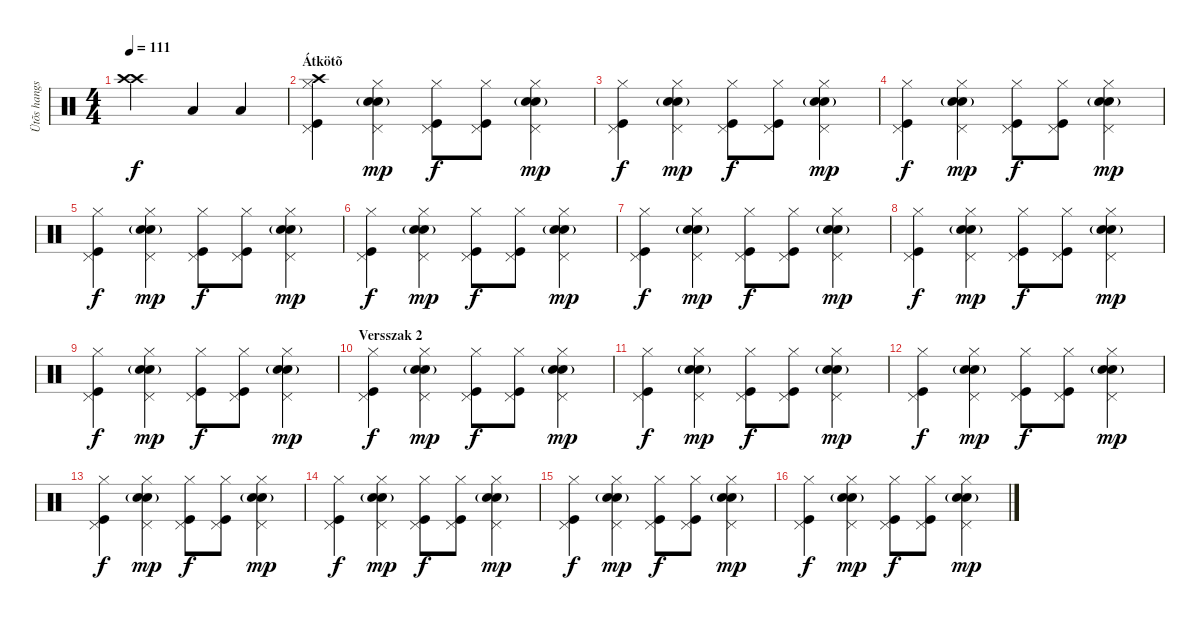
\track ("Ütõs hangszer" "Ütõs hangs") {instrument percussion}
\staff {score}
\articulation defaults
\ts (4 4)
\tempo 111
\clef neutral
\ks c
("Crash high (hit)" "Crash high (hit)").2{dy f} "Low Tom (hit)".4 "Low Tom (hit)".4 |
\section ("" "Átkötõ")
("Hi-Hat (closed)" "Pedal Hi-Hat (hit)" "Crash high (hit)" "Kick (hit)").4 ("Hi-Hat (closed)" "Electric Snare (hit)"{g} "Snare (hit) 2" "Pedal Hi-Hat (hit)").4{dy mp} ("Hi-Hat (closed)" "Pedal Hi-Hat (hit)" "Kick (hit)").8{dy f} ("Hi-Hat (closed)" "Pedal Hi-Hat (hit)" "Kick (hit)").8 ("Hi-Hat (closed)" "Electric Snare (hit)"{g} "Snare (hit) 2" "Pedal Hi-Hat (hit)").4{dy mp} |
("Hi-Hat (closed)" "Pedal Hi-Hat (hit)" "Kick (hit)").4{dy f} ("Hi-Hat (closed)" "Electric Snare (hit)"{g} "Snare (hit) 2" "Pedal Hi-Hat (hit)").4{dy mp} ("Hi-Hat (closed)" "Pedal Hi-Hat (hit)" "Kick (hit)").8{dy f} ("Hi-Hat (closed)" "Pedal Hi-Hat (hit)" "Kick (hit)").8 ("Hi-Hat (closed)" "Electric Snare (hit)"{g} "Snare (hit) 2" "Pedal Hi-Hat (hit)").4{dy mp} |
("Hi-Hat (closed)" "Pedal Hi-Hat (hit)" "Kick (hit)").4{dy f} ("Hi-Hat (closed)" "Electric Snare (hit)"{g} "Snare (hit) 2" "Pedal Hi-Hat (hit)").4{dy mp} ("Hi-Hat (closed)" "Pedal Hi-Hat (hit)" "Kick (hit)").8{dy f} ("Hi-Hat (closed)" "Pedal Hi-Hat (hit)" "Kick (hit)").8 ("Hi-Hat (closed)" "Electric Snare (hit)"{g} "Snare (hit) 2" "Pedal Hi-Hat (hit)").4{dy mp} |
("Hi-Hat (closed)" "Pedal Hi-Hat (hit)" "Kick (hit)").4{dy f} ("Hi-Hat (closed)" "Electric Snare (hit)"{g} "Snare (hit) 2" "Pedal Hi-Hat (hit)").4{dy mp} ("Hi-Hat (closed)" "Pedal Hi-Hat (hit)" "Kick (hit)").8{dy f} ("Hi-Hat (closed)" "Pedal Hi-Hat (hit)" "Kick (hit)").8 ("Hi-Hat (closed)" "Electric Snare (hit)"{g} "Snare (hit) 2" "Pedal Hi-Hat (hit)").4{dy mp} |
("Hi-Hat (closed)" "Pedal Hi-Hat (hit)" "Kick (hit)").4{dy f} ("Hi-Hat (closed)" "Electric Snare (hit)"{g} "Snare (hit) 2" "Pedal Hi-Hat (hit)").4{dy mp} ("Hi-Hat (closed)" "Pedal Hi-Hat (hit)" "Kick (hit)").8{dy f} ("Hi-Hat (closed)" "Pedal Hi-Hat (hit)" "Kick (hit)").8 ("Hi-Hat (closed)" "Electric Snare (hit)"{g} "Snare (hit) 2" "Pedal Hi-Hat (hit)").4{dy mp} |
("Hi-Hat (closed)" "Pedal Hi-Hat (hit)" "Kick (hit)").4{dy f} ("Hi-Hat (closed)" "Electric Snare (hit)"{g} "Snare (hit) 2" "Pedal Hi-Hat (hit)").4{dy mp} ("Hi-Hat (closed)" "Pedal Hi-Hat (hit)" "Kick (hit)").8{dy f} ("Hi-Hat (closed)" "Pedal Hi-Hat (hit)" "Kick (hit)").8 ("Hi-Hat (closed)" "Electric Snare (hit)"{g} "Snare (hit) 2" "Pedal Hi-Hat (hit)").4{dy mp} |
("Hi-Hat (closed)" "Pedal Hi-Hat (hit)" "Kick (hit)").4{dy f} ("Hi-Hat (closed)" "Electric Snare (hit)"{g} "Snare (hit) 2" "Pedal Hi-Hat (hit)").4{dy mp} ("Hi-Hat (closed)" "Pedal Hi-Hat (hit)" "Kick (hit)").8{dy f} ("Hi-Hat (closed)" "Pedal Hi-Hat (hit)" "Kick (hit)").8 ("Hi-Hat (closed)" "Electric Snare (hit)"{g} "Snare (hit) 2" "Pedal Hi-Hat (hit)").4{dy mp} |
("Hi-Hat (closed)" "Pedal Hi-Hat (hit)" "Kick (hit)").4{dy f} ("Hi-Hat (closed)" "Electric Snare (hit)"{g} "Snare (hit) 2" "Pedal Hi-Hat (hit)").4{dy mp} ("Hi-Hat (closed)" "Pedal Hi-Hat (hit)" "Kick (hit)").8{dy f} ("Hi-Hat (closed)" "Pedal Hi-Hat (hit)" "Kick (hit)").8 ("Hi-Hat (closed)" "Electric Snare (hit)"{g} "Snare (hit) 2" "Pedal Hi-Hat (hit)").4{dy mp} |
\section ("" "Versszak 2")
("Hi-Hat (closed)" "Pedal Hi-Hat (hit)" "Kick (hit)").4{dy f} ("Hi-Hat (closed)" "Electric Snare (hit)"{g} "Snare (hit) 2" "Pedal Hi-Hat (hit)").4{dy mp} ("Hi-Hat (closed)" "Pedal Hi-Hat (hit)" "Kick (hit)").8{dy f} ("Hi-Hat (closed)" "Pedal Hi-Hat (hit)" "Kick (hit)").8 ("Hi-Hat (closed)" "Electric Snare (hit)"{g} "Snare (hit) 2" "Pedal Hi-Hat (hit)").4{dy mp} |
("Hi-Hat (closed)" "Pedal Hi-Hat (hit)" "Kick (hit)").4{dy f} ("Hi-Hat (closed)" "Electric Snare (hit)"{g} "Snare (hit) 2" "Pedal Hi-Hat (hit)").4{dy mp} ("Hi-Hat (closed)" "Pedal Hi-Hat (hit)" "Kick (hit)").8{dy f} ("Hi-Hat (closed)" "Pedal Hi-Hat (hit)" "Kick (hit)").8 ("Hi-Hat (closed)" "Electric Snare (hit)"{g} "Snare (hit) 2" "Pedal Hi-Hat (hit)").4{dy mp} |
("Hi-Hat (closed)" "Pedal Hi-Hat (hit)" "Kick (hit)").4{dy f} ("Hi-Hat (closed)" "Electric Snare (hit)"{g} "Snare (hit) 2" "Pedal Hi-Hat (hit)").4{dy mp} ("Hi-Hat (closed)" "Pedal Hi-Hat (hit)" "Kick (hit)").8{dy f} ("Hi-Hat (closed)" "Pedal Hi-Hat (hit)" "Kick (hit)").8 ("Hi-Hat (closed)" "Electric Snare (hit)"{g} "Snare (hit) 2" "Pedal Hi-Hat (hit)").4{dy mp} |
("Hi-Hat (closed)" "Pedal Hi-Hat (hit)" "Kick (hit)").4{dy f} ("Hi-Hat (closed)" "Electric Snare (hit)"{g} "Snare (hit) 2" "Pedal Hi-Hat (hit)").4{dy mp} ("Hi-Hat (closed)" "Pedal Hi-Hat (hit)" "Kick (hit)").8{dy f} ("Hi-Hat (closed)" "Pedal Hi-Hat (hit)" "Kick (hit)").8 ("Hi-Hat (closed)" "Electric Snare (hit)"{g} "Snare (hit) 2" "Pedal Hi-Hat (hit)").4{dy mp} |
("Hi-Hat (closed)" "Pedal Hi-Hat (hit)" "Kick (hit)").4{dy f} ("Hi-Hat (closed)" "Electric Snare (hit)"{g} "Snare (hit) 2" "Pedal Hi-Hat (hit)").4{dy mp} ("Hi-Hat (closed)" "Pedal Hi-Hat (hit)" "Kick (hit)").8{dy f} ("Hi-Hat (closed)" "Pedal Hi-Hat (hit)" "Kick (hit)").8 ("Hi-Hat (closed)" "Electric Snare (hit)"{g} "Snare (hit) 2" "Pedal Hi-Hat (hit)").4{dy mp} |
("Hi-Hat (closed)" "Pedal Hi-Hat (hit)" "Kick (hit)").4{dy f} ("Hi-Hat (closed)" "Electric Snare (hit)"{g} "Snare (hit) 2" "Pedal Hi-Hat (hit)").4{dy mp} ("Hi-Hat (closed)" "Pedal Hi-Hat (hit)" "Kick (hit)").8{dy f} ("Hi-Hat (closed)" "Pedal Hi-Hat (hit)" "Kick (hit)").8 ("Hi-Hat (closed)" "Electric Snare (hit)"{g} "Snare (hit) 2" "Pedal Hi-Hat (hit)").4{dy mp} |
("Hi-Hat (closed)" "Pedal Hi-Hat (hit)" "Kick (hit)").4{dy f} ("Hi-Hat (closed)" "Electric Snare (hit)"{g} "Snare (hit) 2" "Pedal Hi-Hat (hit)").4{dy mp} ("Hi-Hat (closed)" "Pedal Hi-Hat (hit)" "Kick (hit)").8{dy f} ("Hi-Hat (closed)" "Pedal Hi-Hat (hit)" "Kick (hit)").8 ("Hi-Hat (closed)" "Electric Snare (hit)"{g} "Snare (hit) 2" "Pedal Hi-Hat (hit)").4{dy mp}
